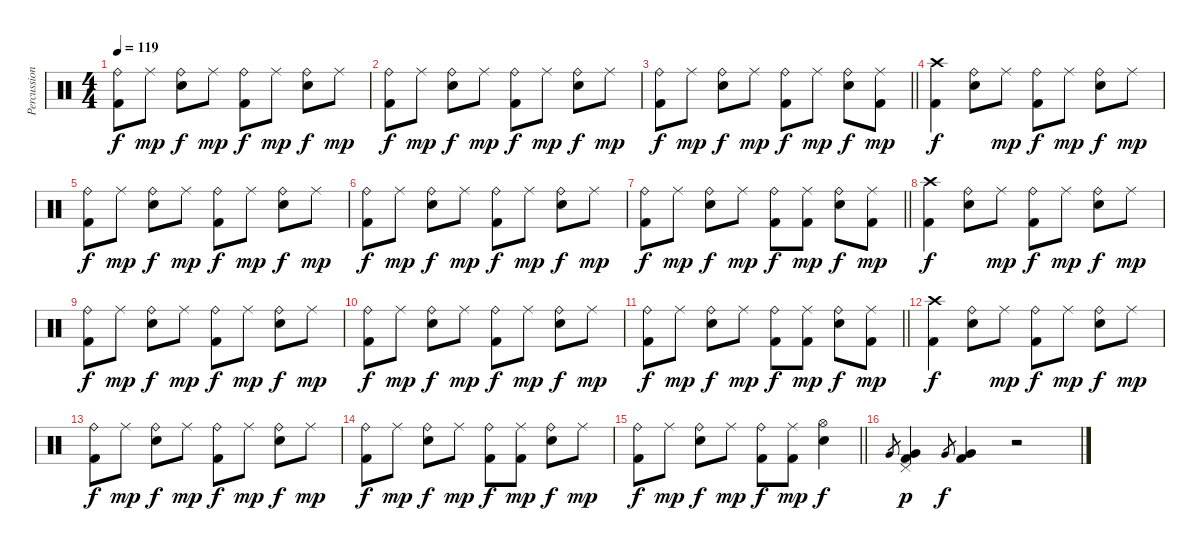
\track ("Percussion" "Percussion") {instrument percussion}
\staff {score}
\articulation defaults
\ts (4 4)
\tempo 119
\clef neutral
\ks c
("Ride (bell)" "Kick (hit) 2").8{dy f} "Ride (middle)".8{dy mp} ("Ride (bell)" "Snare (hit) 2").8{dy f} "Ride (middle)".8{dy mp} ("Ride (bell)" "Kick (hit) 2").8{dy f} "Ride (middle)".8{dy mp} ("Ride (bell)" "Snare (hit) 2").8{dy f} "Ride (middle)".8{dy mp} |
("Ride (bell)" "Kick (hit) 2").8{dy f} "Ride (middle)".8{dy mp} ("Ride (bell)" "Snare (hit) 2").8{dy f} "Ride (middle)".8{dy mp} ("Ride (bell)" "Kick (hit) 2").8{dy f} "Ride (middle)".8{dy mp} ("Ride (bell)" "Snare (hit) 2").8{dy f} "Ride (middle)".8{dy mp} |
\barLineRight lightlight
("Ride (bell)" "Kick (hit) 2").8{dy f} "Ride (middle)".8{dy mp} ("Ride (bell)" "Snare (hit) 2").8{dy f} "Ride (middle)".8{dy mp} ("Ride (bell)" "Kick (hit) 2").8{dy f} "Ride (middle)".8{dy mp} ("Ride (bell)" "Snare (hit) 2").8{dy f} ("Ride (middle)" "Kick (hit) 2").8{dy mp} |
("Crash high (hit)" "Kick (hit) 2").4{dy f} ("Ride (bell)" "Snare (hit) 2").8 "Ride (middle)".8{dy mp} ("Ride (bell)" "Kick (hit) 2").8{dy f} "Ride (middle)".8{dy mp} ("Ride (bell)" "Snare (hit) 2").8{dy f} "Ride (middle)".8{dy mp} |
("Ride (bell)" "Kick (hit) 2").8{dy f} "Ride (middle)".8{dy mp} ("Ride (bell)" "Snare (hit) 2").8{dy f} "Ride (middle)".8{dy mp} ("Ride (bell)" "Kick (hit) 2").8{dy f} "Ride (middle)".8{dy mp} ("Ride (bell)" "Snare (hit) 2").8{dy f} "Ride (middle)".8{dy mp} |
("Ride (bell)" "Kick (hit) 2").8{dy f} "Ride (middle)".8{dy mp} ("Ride (bell)" "Snare (hit) 2").8{dy f} "Ride (middle)".8{dy mp} ("Ride (bell)" "Kick (hit) 2").8{dy f} "Ride (middle)".8{dy mp} ("Ride (bell)" "Snare (hit) 2").8{dy f} "Ride (middle)".8{dy mp} |
\barLineRight lightlight
("Ride (bell)" "Kick (hit) 2").8{dy f} "Ride (middle)".8{dy mp} ("Ride (bell)" "Snare (hit) 2").8{dy f} "Ride (middle)".8{dy mp} ("Ride (bell)" "Kick (hit) 2").8{dy f} ("Ride (middle)" "Kick (hit) 2").8{dy mp} ("Ride (bell)" "Snare (hit) 2").8{dy f} ("Ride (middle)" "Kick (hit) 2").8{dy mp} |
("Crash high (hit)" "Kick (hit) 2").4{dy f} ("Ride (bell)" "Snare (hit) 2").8 "Ride (middle)".8{dy mp} ("Ride (bell)" "Kick (hit) 2").8{dy f} "Ride (middle)".8{dy mp} ("Ride (bell)" "Snare (hit) 2").8{dy f} "Ride (middle)".8{dy mp} |
("Ride (bell)" "Kick (hit) 2").8{dy f} "Ride (middle)".8{dy mp} ("Ride (bell)" "Snare (hit) 2").8{dy f} "Ride (middle)".8{dy mp} ("Ride (bell)" "Kick (hit) 2").8{dy f} "Ride (middle)".8{dy mp} ("Ride (bell)" "Snare (hit) 2").8{dy f} "Ride (middle)".8{dy mp} |
("Ride (bell)" "Kick (hit) 2").8{dy f} "Ride (middle)".8{dy mp} ("Ride (bell)" "Snare (hit) 2").8{dy f} "Ride (middle)".8{dy mp} ("Ride (bell)" "Kick (hit) 2").8{dy f} "Ride (middle)".8{dy mp} ("Ride (bell)" "Snare (hit) 2").8{dy f} "Ride (middle)".8{dy mp} |
\barLineRight lightlight
("Ride (bell)" "Kick (hit) 2").8{dy f} "Ride (middle)".8{dy mp} ("Ride (bell)" "Snare (hit) 2").8{dy f} "Ride (middle)".8{dy mp} ("Ride (bell)" "Kick (hit) 2").8{dy f} ("Ride (middle)" "Kick (hit) 2").8{dy mp} ("Ride (bell)" "Snare (hit) 2").8{dy f} ("Ride (middle)" "Kick (hit) 2").8{dy mp} |
("Crash high (hit)" "Kick (hit) 2").4{dy f} ("Ride (bell)" "Snare (hit) 2").8 "Ride (middle)".8{dy mp} ("Ride (bell)" "Kick (hit) 2").8{dy f} "Ride (middle)".8{dy mp} ("Ride (bell)" "Snare (hit) 2").8{dy f} "Ride (middle)".8{dy mp} |
("Ride (bell)" "Kick (hit) 2").8{dy f} "Ride (middle)".8{dy mp} ("Ride (bell)" "Snare (hit) 2").8{dy f} "Ride (middle)".8{dy mp} ("Ride (bell)" "Kick (hit) 2").8{dy f} "Ride (middle)".8{dy mp} ("Ride (bell)" "Snare (hit) 2").8{dy f} "Ride (middle)".8{dy mp} |
("Ride (bell)" "Kick (hit) 2").8{dy f} "Ride (middle)".8{dy mp} ("Ride (bell)" "Snare (hit) 2").8{dy f} "Ride (middle)".8{dy mp} ("Ride (bell)" "Kick (hit) 2").8{dy f} ("Ride (middle)" "Kick (hit) 2").8{dy mp} ("Ride (bell)" "Snare (hit) 2").8{dy f} "Ride (middle)".8{dy mp} |
\barLineRight lightlight
("Ride (bell)" "Kick (hit) 2").8{dy f} "Ride (middle)".8{dy mp} ("Ride (bell)" "Snare (hit) 2").8{dy f} "Ride (middle)".8{dy mp} ("Ride (bell)" "Kick (hit) 2").8{dy f} ("Ride (middle)" "Kick (hit) 2").8{dy mp} ("Hi-Hat (open)" "Snare (hit) 2").4{dy f} |
"Very Low Tom (hit)".8{gr} ("Pedal Hi-Hat (hit)" "Very Low Tom (hit)" "Kick (hit) 2").4{dy p} "Very Low Tom (hit)".8{gr dy f} ("Very Low Tom (hit)" "Kick (hit) 2").4 r.2
